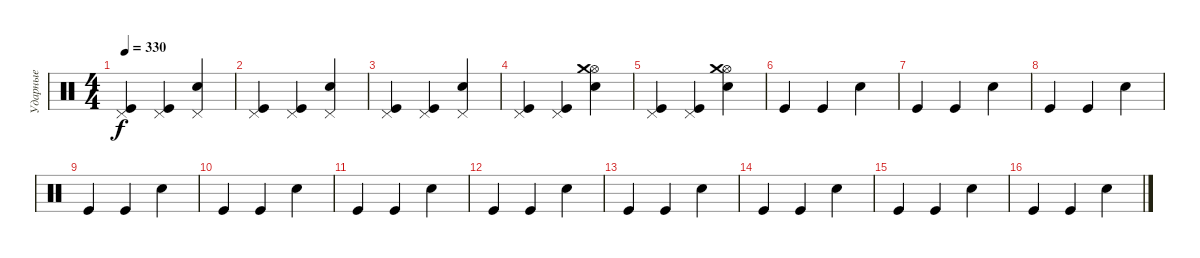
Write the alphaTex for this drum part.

\track ("Ударные" "Ударные") {instrument percussion}
\staff {score}
\articulation defaults
\ts (4 4)
\tempo 330
\clef neutral
\ks c
("Kick (hit)" "Pedal Hi-Hat (hit)").4{dy f} ("Kick (hit)" "Pedal Hi-Hat (hit)").4 ("Snare (hit) 2" "Pedal Hi-Hat (hit)").4 |
("Kick (hit)" "Pedal Hi-Hat (hit)").4 ("Kick (hit)" "Pedal Hi-Hat (hit)").4 ("Snare (hit) 2" "Pedal Hi-Hat (hit)").4 |
("Kick (hit)" "Pedal Hi-Hat (hit)").4 ("Kick (hit)" "Pedal Hi-Hat (hit)").4 ("Snare (hit) 2" "Pedal Hi-Hat (hit)").4 |
("Kick (hit)" "Pedal Hi-Hat (hit)").4 ("Kick (hit)" "Pedal Hi-Hat (hit)").4 ("Snare (hit) 2" "Hi-Hat (open)" "Crash medium (hit)").4 |
("Kick (hit)" "Pedal Hi-Hat (hit)").4 ("Kick (hit)" "Pedal Hi-Hat (hit)").4 ("Snare (hit) 2" "Hi-Hat (open)" "Crash medium (hit)").4 |
"Kick (hit)".4 "Kick (hit)".4 "Snare (hit) 2".4 |
"Kick (hit)".4 "Kick (hit)".4 "Snare (hit) 2".4 |
"Kick (hit)".4 "Kick (hit)".4 "Snare (hit) 2".4 |
"Kick (hit)".4 "Kick (hit)".4 "Snare (hit) 2".4 |
"Kick (hit)".4 "Kick (hit)".4 "Snare (hit) 2".4 |
"Kick (hit)".4 "Kick (hit)".4 "Snare (hit) 2".4 |
"Kick (hit)".4 "Kick (hit)".4 "Snare (hit) 2".4 |
"Kick (hit)".4 "Kick (hit)".4 "Snare (hit) 2".4 |
"Kick (hit)".4 "Kick (hit)".4 "Snare (hit) 2".4 |
"Kick (hit)".4 "Kick (hit)".4 "Snare (hit) 2".4 |
"Kick (hit)".4 "Kick (hit)".4 "Snare (hit) 2".4
